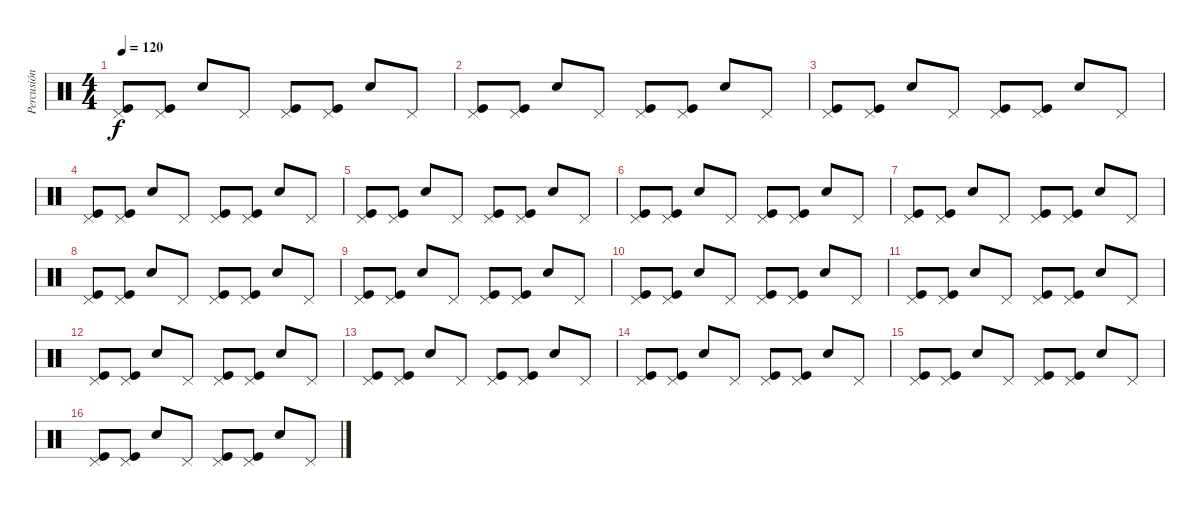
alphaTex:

\track ("Percusión" "Percusión") {instrument percussion}
\staff {score}
\articulation defaults
\ts (4 4)
\tempo 120
\clef neutral
\ks c
("Pedal Hi-Hat (hit)" "Kick (hit)").8{dy f} ("Pedal Hi-Hat (hit)" "Kick (hit)").8 "Electric Snare (hit)".8 "Pedal Hi-Hat (hit)".8 ("Pedal Hi-Hat (hit)" "Kick (hit)").8 ("Pedal Hi-Hat (hit)" "Kick (hit)").8 "Electric Snare (hit)".8 "Pedal Hi-Hat (hit)".8 |
("Pedal Hi-Hat (hit)" "Kick (hit)").8 ("Pedal Hi-Hat (hit)" "Kick (hit)").8 "Electric Snare (hit)".8 "Pedal Hi-Hat (hit)".8 ("Pedal Hi-Hat (hit)" "Kick (hit)").8 ("Pedal Hi-Hat (hit)" "Kick (hit)").8 "Electric Snare (hit)".8 "Pedal Hi-Hat (hit)".8 |
("Pedal Hi-Hat (hit)" "Kick (hit)").8 ("Pedal Hi-Hat (hit)" "Kick (hit)").8 "Electric Snare (hit)".8 "Pedal Hi-Hat (hit)".8 ("Pedal Hi-Hat (hit)" "Kick (hit)").8 ("Pedal Hi-Hat (hit)" "Kick (hit)").8 "Electric Snare (hit)".8 "Pedal Hi-Hat (hit)".8 |
("Pedal Hi-Hat (hit)" "Kick (hit)").8 ("Pedal Hi-Hat (hit)" "Kick (hit)").8 "Electric Snare (hit)".8 "Pedal Hi-Hat (hit)".8 ("Pedal Hi-Hat (hit)" "Kick (hit)").8 ("Pedal Hi-Hat (hit)" "Kick (hit)").8 "Electric Snare (hit)".8 "Pedal Hi-Hat (hit)".8 |
("Pedal Hi-Hat (hit)" "Kick (hit)").8 ("Pedal Hi-Hat (hit)" "Kick (hit)").8 "Electric Snare (hit)".8 "Pedal Hi-Hat (hit)".8 ("Pedal Hi-Hat (hit)" "Kick (hit)").8 ("Pedal Hi-Hat (hit)" "Kick (hit)").8 "Electric Snare (hit)".8 "Pedal Hi-Hat (hit)".8 |
("Pedal Hi-Hat (hit)" "Kick (hit)").8 ("Pedal Hi-Hat (hit)" "Kick (hit)").8 "Electric Snare (hit)".8 "Pedal Hi-Hat (hit)".8 ("Pedal Hi-Hat (hit)" "Kick (hit)").8 ("Pedal Hi-Hat (hit)" "Kick (hit)").8 "Electric Snare (hit)".8 "Pedal Hi-Hat (hit)".8 |
("Pedal Hi-Hat (hit)" "Kick (hit)").8 ("Pedal Hi-Hat (hit)" "Kick (hit)").8 "Electric Snare (hit)".8 "Pedal Hi-Hat (hit)".8 ("Pedal Hi-Hat (hit)" "Kick (hit)").8 ("Pedal Hi-Hat (hit)" "Kick (hit)").8 "Electric Snare (hit)".8 "Pedal Hi-Hat (hit)".8 |
("Pedal Hi-Hat (hit)" "Kick (hit)").8 ("Pedal Hi-Hat (hit)" "Kick (hit)").8 "Electric Snare (hit)".8 "Pedal Hi-Hat (hit)".8 ("Pedal Hi-Hat (hit)" "Kick (hit)").8 ("Pedal Hi-Hat (hit)" "Kick (hit)").8 "Electric Snare (hit)".8 "Pedal Hi-Hat (hit)".8 |
("Pedal Hi-Hat (hit)" "Kick (hit)").8 ("Pedal Hi-Hat (hit)" "Kick (hit)").8 "Electric Snare (hit)".8 "Pedal Hi-Hat (hit)".8 ("Pedal Hi-Hat (hit)" "Kick (hit)").8 ("Pedal Hi-Hat (hit)" "Kick (hit)").8 "Electric Snare (hit)".8 "Pedal Hi-Hat (hit)".8 |
("Pedal Hi-Hat (hit)" "Kick (hit)").8 ("Pedal Hi-Hat (hit)" "Kick (hit)").8 "Electric Snare (hit)".8 "Pedal Hi-Hat (hit)".8 ("Pedal Hi-Hat (hit)" "Kick (hit)").8 ("Pedal Hi-Hat (hit)" "Kick (hit)").8 "Electric Snare (hit)".8 "Pedal Hi-Hat (hit)".8 |
("Pedal Hi-Hat (hit)" "Kick (hit)").8 ("Pedal Hi-Hat (hit)" "Kick (hit)").8 "Electric Snare (hit)".8 "Pedal Hi-Hat (hit)".8 ("Pedal Hi-Hat (hit)" "Kick (hit)").8 ("Pedal Hi-Hat (hit)" "Kick (hit)").8 "Electric Snare (hit)".8 "Pedal Hi-Hat (hit)".8 |
("Pedal Hi-Hat (hit)" "Kick (hit)").8 ("Pedal Hi-Hat (hit)" "Kick (hit)").8 "Electric Snare (hit)".8 "Pedal Hi-Hat (hit)".8 ("Pedal Hi-Hat (hit)" "Kick (hit)").8 ("Pedal Hi-Hat (hit)" "Kick (hit)").8 "Electric Snare (hit)".8 "Pedal Hi-Hat (hit)".8 |
("Pedal Hi-Hat (hit)" "Kick (hit)").8 ("Pedal Hi-Hat (hit)" "Kick (hit)").8 "Electric Snare (hit)".8 "Pedal Hi-Hat (hit)".8 ("Pedal Hi-Hat (hit)" "Kick (hit)").8 ("Pedal Hi-Hat (hit)" "Kick (hit)").8 "Electric Snare (hit)".8 "Pedal Hi-Hat (hit)".8 |
("Pedal Hi-Hat (hit)" "Kick (hit)").8 ("Pedal Hi-Hat (hit)" "Kick (hit)").8 "Electric Snare (hit)".8 "Pedal Hi-Hat (hit)".8 ("Pedal Hi-Hat (hit)" "Kick (hit)").8 ("Pedal Hi-Hat (hit)" "Kick (hit)").8 "Electric Snare (hit)".8 "Pedal Hi-Hat (hit)".8 |
("Pedal Hi-Hat (hit)" "Kick (hit)").8 ("Pedal Hi-Hat (hit)" "Kick (hit)").8 "Electric Snare (hit)".8 "Pedal Hi-Hat (hit)".8 ("Pedal Hi-Hat (hit)" "Kick (hit)").8 ("Pedal Hi-Hat (hit)" "Kick (hit)").8 "Electric Snare (hit)".8 "Pedal Hi-Hat (hit)".8 |
("Pedal Hi-Hat (hit)" "Kick (hit)").8 ("Pedal Hi-Hat (hit)" "Kick (hit)").8 "Electric Snare (hit)".8 "Pedal Hi-Hat (hit)".8 ("Pedal Hi-Hat (hit)" "Kick (hit)").8 ("Pedal Hi-Hat (hit)" "Kick (hit)").8 "Electric Snare (hit)".8 "Pedal Hi-Hat (hit)".8
